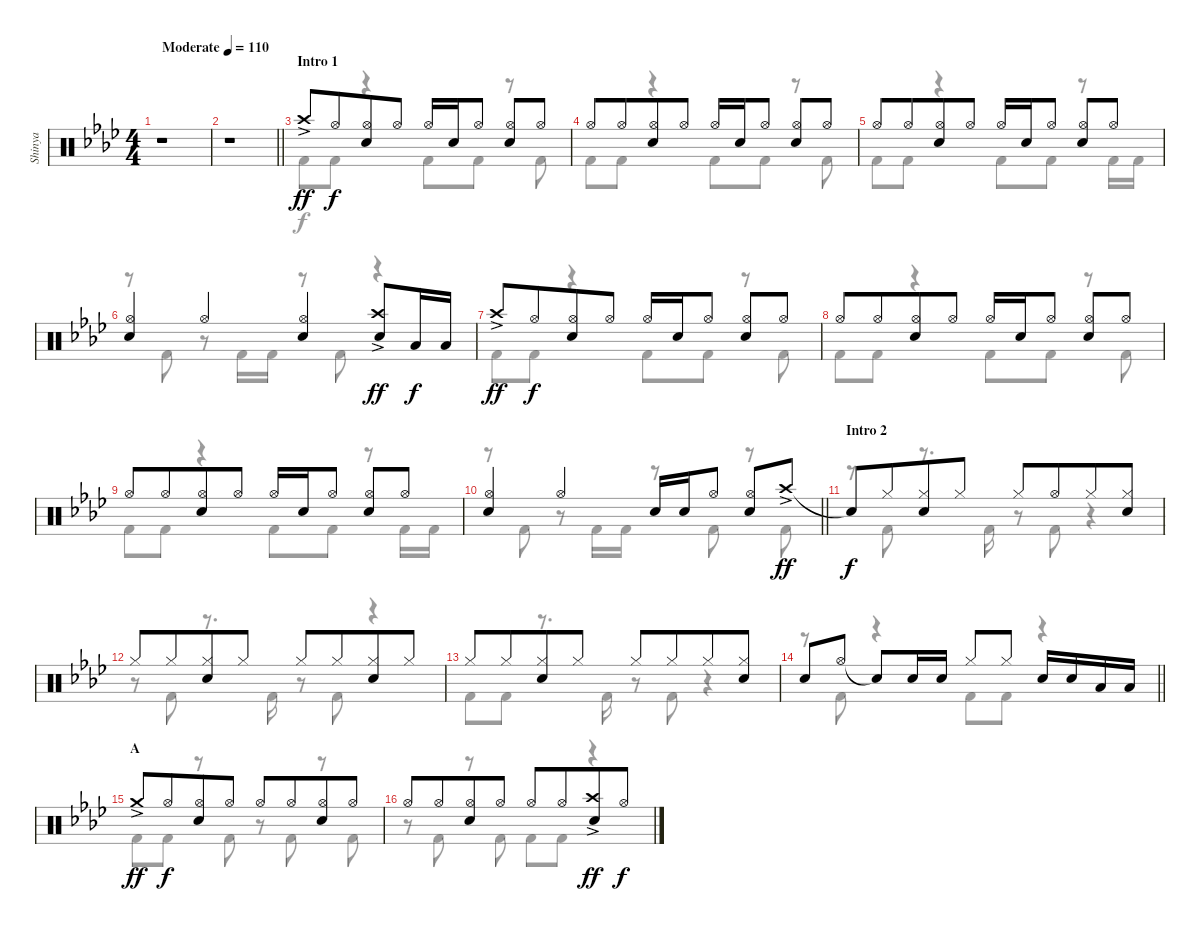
\track ("Shinya" "Shinya") {instrument percussion}
\staff {score}
\articulation defaults
\voice
\ts (4 4)
\tempo (110 "Moderate")
\clef neutral
\ks fminor
r.1{dy ff} |
\barLineRight lightlight
r.1 |
\section ("" "Intro 1")
"Crash high (hit)"{ac}.8 "Hi-Hat (open)".8{dy f beam merge} ("Hi-Hat (open)" "Snare (hit) 2").8 "Hi-Hat (open)".8 "Hi-Hat (open)".16 "Snare (hit) 2".16 "Hi-Hat (open)".8 ("Hi-Hat (open)" "Snare (hit) 2").8 "Hi-Hat (open)".8 |
"Hi-Hat (open)".8 "Hi-Hat (open)".8{beam merge} ("Hi-Hat (open)" "Snare (hit) 2").8 "Hi-Hat (open)".8 "Hi-Hat (open)".16 "Snare (hit) 2".16 "Hi-Hat (open)".8 ("Hi-Hat (open)" "Snare (hit) 2").8 "Hi-Hat (open)".8 |
"Hi-Hat (open)".8 "Hi-Hat (open)".8{beam merge} ("Hi-Hat (open)" "Snare (hit) 2").8 "Hi-Hat (open)".8 "Hi-Hat (open)".16 "Snare (hit) 2".16 "Hi-Hat (open)".8 ("Hi-Hat (open)" "Snare (hit) 2").8 "Hi-Hat (open)".8 |
("Hi-Hat (open)" "Snare (hit) 2").4 "Hi-Hat (open)".4 ("Hi-Hat (open)" "Snare (hit) 2").4 ("Crash high (hit)"{ac} "Snare (hit) 2").8{dy ff} "Low Tom (hit)".16{dy f} "Low Tom (hit)".16 |
"Crash high (hit)"{ac}.8{dy ff} "Hi-Hat (open)".8{dy f beam merge} ("Hi-Hat (open)" "Snare (hit) 2").8 "Hi-Hat (open)".8 "Hi-Hat (open)".16 "Snare (hit) 2".16 "Hi-Hat (open)".8 ("Hi-Hat (open)" "Snare (hit) 2").8 "Hi-Hat (open)".8 |
"Hi-Hat (open)".8 "Hi-Hat (open)".8{beam merge} ("Hi-Hat (open)" "Snare (hit) 2").8 "Hi-Hat (open)".8 "Hi-Hat (open)".16 "Snare (hit) 2".16 "Hi-Hat (open)".8 ("Hi-Hat (open)" "Snare (hit) 2").8 "Hi-Hat (open)".8 |
"Hi-Hat (open)".8 "Hi-Hat (open)".8{beam merge} ("Hi-Hat (open)" "Snare (hit) 2").8 "Hi-Hat (open)".8 "Hi-Hat (open)".16 "Snare (hit) 2".16 "Hi-Hat (open)".8 ("Hi-Hat (open)" "Snare (hit) 2").8 "Hi-Hat (open)".8 |
\barLineRight lightlight
("Hi-Hat (open)" "Snare (hit) 2").4 "Hi-Hat (open)".4 "Snare (hit) 2".16 "Snare (hit) 2".16 "Hi-Hat (open)".8 ("Hi-Hat (open)" "Snare (hit) 2").8 "Crash high (hit)"{ac}.8{dy ff} |
\section ("" "Intro 2")
"Snare (hit)"{t}.8{dy f} "Hi-Hat (closed)".8{beam merge} ("Hi-Hat (closed)" "Snare (hit) 2").8 "Hi-Hat (closed)".8 "Hi-Hat (closed)".8 "Hi-Hat (open)".8{beam merge} "Hi-Hat (closed)".8 ("Hi-Hat (closed)" "Snare (hit) 2").8 |
"Hi-Hat (closed)".8 "Hi-Hat (closed)".8{beam merge} ("Hi-Hat (closed)" "Snare (hit) 2").8 "Hi-Hat (closed)".8 "Hi-Hat (closed)".8 "Hi-Hat (closed)".8{beam merge} ("Hi-Hat (closed)" "Snare (hit) 2").8 "Hi-Hat (closed)".8 |
"Hi-Hat (closed)".8 "Hi-Hat (closed)".8{beam merge} ("Hi-Hat (closed)" "Snare (hit) 2").8 "Hi-Hat (closed)".8 "Hi-Hat (closed)".8 "Hi-Hat (closed)".8{beam merge} "Hi-Hat (closed)".8 ("Hi-Hat (closed)" "Snare (hit) 2").8 |
\barLineRight lightlight "Snare (hit) 2".8 "Hi-Hat (open)".8 "Snare (hit)"{t}.8 "Snare (hit) 2".16 "Snare (hit) 2".16 "Hi-Hat (closed)".8 "Hi-Hat (closed)".8 "Snare (hit) 2".16 "Snare (hit) 2".16 "Low Tom (hit)".16 "Low Tom (hit)".16
|
\section ("" "A")
"Crash medium (hit)"{ac}.8{dy ff} "Hi-Hat (open)".8{dy f beam merge} ("Hi-Hat (open)" "Snare (hit) 2").8 "Hi-Hat (open)".8 "Hi-Hat (open)".8 "Hi-Hat (open)".8{beam merge} ("Hi-Hat (open)" "Snare (hit) 2").8 "Hi-Hat (open)".8 |
"Hi-Hat (open)".8 "Hi-Hat (open)".8{beam merge} ("Hi-Hat (open)" "Snare (hit) 2").8 "Hi-Hat (open)".8 "Hi-Hat (open)".8 "Hi-Hat (open)".8{beam merge} ("Crash high (hit)"{ac} "Snare (hit) 2").8{dy ff} "Hi-Hat (open)".8{dy f}
\voice
\clef neutral
\ottava regular
\simile none
\ks fminor
r.1{dy f} |
\barLineRight lightlight
r.1 |
"Kick (hit) 2".8 "Kick (hit) 2".8 r.4 "Kick (hit) 2".8 "Kick (hit) 2".8 r.8 "Kick (hit) 2".8 |
"Kick (hit) 2".8 "Kick (hit) 2".8 r.4 "Kick (hit) 2".8 "Kick (hit) 2".8 r.8 "Kick (hit) 2".8 |
"Kick (hit) 2".8 "Kick (hit) 2".8 r.4 "Kick (hit) 2".8 "Kick (hit) 2".8 r.8 "Kick (hit) 2".16 "Kick (hit) 2".16 |
r.8 "Kick (hit) 2".8 r.8 "Kick (hit) 2".16 "Kick (hit) 2".16 r.8 "Kick (hit) 2".8 r.4 |
"Kick (hit) 2".8 "Kick (hit) 2".8 r.4 "Kick (hit) 2".8 "Kick (hit) 2".8 r.8 "Kick (hit) 2".8 |
"Kick (hit) 2".8 "Kick (hit) 2".8 r.4 "Kick (hit) 2".8 "Kick (hit) 2".8 r.8 "Kick (hit) 2".8 |
"Kick (hit) 2".8 "Kick (hit) 2".8 r.4 "Kick (hit) 2".8 "Kick (hit) 2".8 r.8 "Kick (hit) 2".16 "Kick (hit) 2".16 |
\barLineRight lightlight
r.8 "Kick (hit) 2".8 r.8 "Kick (hit) 2".16 "Kick (hit) 2".16 r.8 "Kick (hit) 2".8 r.8 "Kick (hit) 2".8 |
r.8 "Kick (hit) 2".8 r.8{d} "Kick (hit) 2".16 r.8 "Kick (hit) 2".8 r.4 |
r.8 "Kick (hit) 2".8 r.8{d} "Kick (hit) 2".16 r.8 "Kick (hit) 2".8 r.4 |
"Kick (hit) 2".8 "Kick (hit) 2".8 r.8{d} "Kick (hit) 2".16 r.8 "Kick (hit) 2".8 r.4 |
\barLineRight lightlight
r.8 "Kick (hit) 2".8 r.4 "Kick (hit) 2".8 "Kick (hit) 2".8 r.4 |
"Kick (hit) 2".8 "Kick (hit) 2".8 r.8 "Kick (hit) 2".8 r.8 "Kick (hit) 2".8 r.8 "Kick (hit) 2".8 |
r.8 "Kick (hit) 2".8 r.8 "Kick (hit) 2".8 "Kick (hit) 2".8 "Kick (hit) 2".8 r.4
